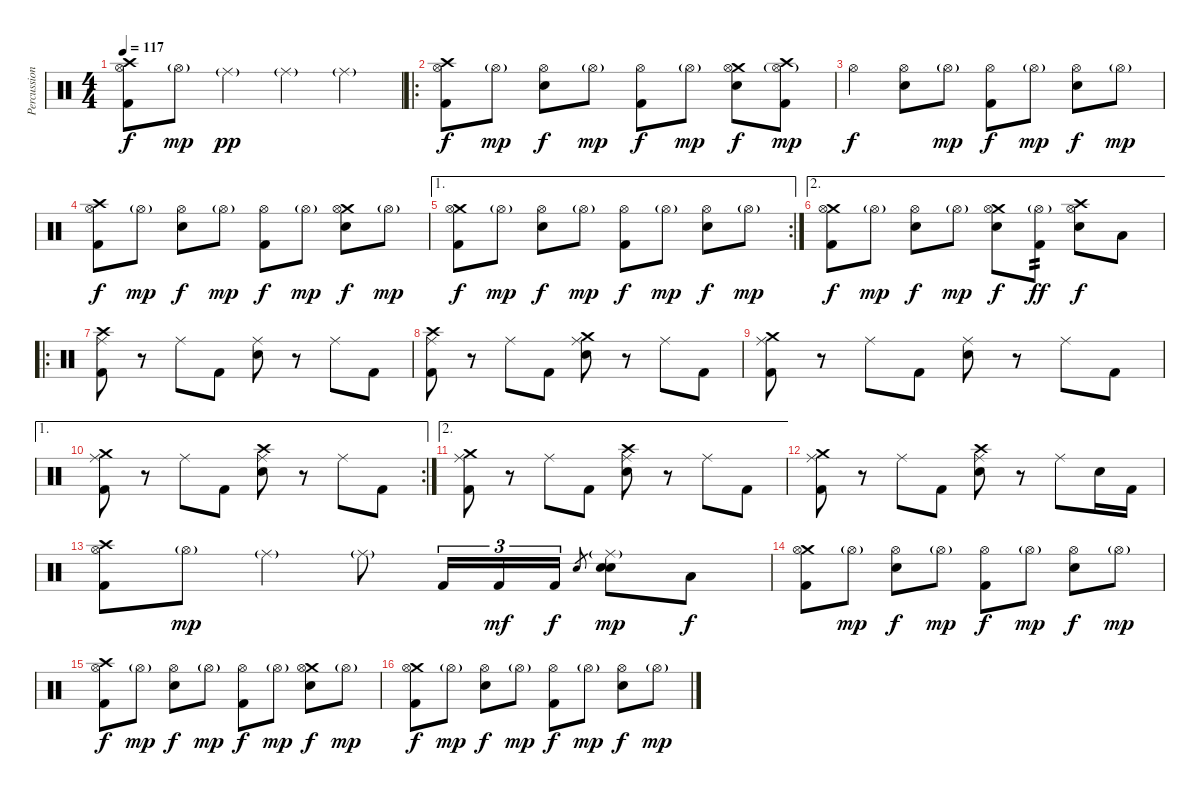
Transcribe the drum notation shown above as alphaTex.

\track ("Percussion" "Percussion") {instrument percussion}
\staff {score}
\articulation defaults
\ts (4 4)
\tempo 117
\clef neutral
\ks c
("Crash high (hit)" "Hi-Hat (open)" "Kick (hit) 2").8{dy f} "Hi-Hat (open)"{g}.8{dy mp} "Ride (middle)"{g}.4{dy pp} "Ride (middle)"{g}.4 "Ride (middle)"{g}.4 |
\ro
("Crash high (hit)" "Hi-Hat (open)" "Kick (hit) 2").8{dy f} "Hi-Hat (open)"{g}.8{dy mp} ("Hi-Hat (open)" "Electric Snare (hit)").8{dy f} "Hi-Hat (open)"{g}.8{dy mp} ("Hi-Hat (open)" "Kick (hit) 2").8{dy f} "Hi-Hat (open)"{g}.8{dy mp} ("Crash medium (hit)" "Hi-Hat (open)" "Electric Snare (hit)").8{dy f} ("Crash high (hit)" "Hi-Hat (open)"{g} "Kick (hit) 2").8{dy mp} |
"Hi-Hat (open)".4{dy f} ("Hi-Hat (open)" "Electric Snare (hit)").8 "Hi-Hat (open)"{g}.8{dy mp} ("Hi-Hat (open)" "Kick (hit) 2").8{dy f} "Hi-Hat (open)"{g}.8{dy mp} ("Hi-Hat (open)" "Electric Snare (hit)").8{dy f} "Hi-Hat (open)"{g}.8{dy mp} |
("Crash high (hit)" "Hi-Hat (open)" "Kick (hit) 2").8{dy f} "Hi-Hat (open)"{g}.8{dy mp} ("Hi-Hat (open)" "Electric Snare (hit)").8{dy f} "Hi-Hat (open)"{g}.8{dy mp} ("Hi-Hat (open)" "Kick (hit) 2").8{dy f} "Hi-Hat (open)"{g}.8{dy mp} ("Crash medium (hit)" "Hi-Hat (open)" "Electric Snare (hit)").8{dy f} "Hi-Hat (open)"{g}.8{dy mp} |
\ae 1
\rc 2
("Crash medium (hit)" "Hi-Hat (open)" "Kick (hit) 2").8{dy f} "Hi-Hat (open)"{g}.8{dy mp} ("Hi-Hat (open)" "Electric Snare (hit)").8{dy f} "Hi-Hat (open)"{g}.8{dy mp} ("Hi-Hat (open)" "Kick (hit) 2").8{dy f} "Hi-Hat (open)"{g}.8{dy mp} ("Hi-Hat (open)" "Electric Snare (hit)").8{dy f} "Hi-Hat (open)"{g}.8{dy mp} |
\ae 2
("Crash medium (hit)" "Hi-Hat (open)" "Kick (hit) 2").8{dy f} "Hi-Hat (open)"{g}.8{dy mp} ("Hi-Hat (open)" "Electric Snare (hit)").8{dy f} "Hi-Hat (open)"{g}.8{dy mp} ("Crash medium (hit)" "Hi-Hat (open)" "Electric Snare (hit)").8{dy f} ("Hi-Hat (open)"{g} "Kick (hit) 2").8{tp 2 dy ff} ("Crash high (hit)" "Hi-Hat (open)" "Electric Snare (hit)").8{dy f} "Low Tom (hit)".8 |
\ro
("Ride (middle)" "Crash high (hit)" "Kick (hit) 2").8 r.8 "Ride (middle)".8 "Kick (hit) 2".8 ("Ride (middle)" "Electric Snare (hit)").8 r.8 "Ride (middle)".8 "Kick (hit) 2".8 |
("Ride (middle)" "Crash high (hit)" "Kick (hit) 2").8 r.8 "Ride (middle)".8 "Kick (hit) 2".8 ("Ride (middle)" "Crash medium (hit)" "Electric Snare (hit)").8 r.8 "Ride (middle)".8 "Kick (hit) 2".8 |
("Ride (middle)" "Crash medium (hit)" "Kick (hit) 2").8 r.8 "Ride (middle)".8 "Kick (hit) 2".8 ("Ride (middle)" "Electric Snare (hit)").8 r.8 "Ride (middle)".8 "Kick (hit) 2".8 |
\ae 1
\rc 2
("Ride (middle)" "Crash medium (hit)" "Kick (hit) 2").8 r.8 "Ride (middle)".8 "Kick (hit) 2".8 ("Ride (middle)" "Crash high (hit)" "Electric Snare (hit)").8 r.8 "Ride (middle)".8 "Kick (hit) 2".8 |
\ae 2
("Ride (middle)" "Crash medium (hit)" "Kick (hit) 2").8 r.8 "Ride (middle)".8 "Kick (hit) 2".8 ("Ride (middle)" "Crash high (hit)" "Electric Snare (hit)").8 r.8 "Ride (middle)".8 "Kick (hit) 2".8 |
("Ride (middle)" "Crash medium (hit)" "Kick (hit) 2").8 r.8 "Ride (middle)".8 "Kick (hit) 2".8 ("Ride (middle)" "Crash high (hit)" "Electric Snare (hit)").8 r.8 "Ride (middle)".8 "Electric Snare (hit)".16 "Kick (hit) 2".16 |
("Crash high (hit)" "Hi-Hat (open)" "Kick (hit) 2").8 "Hi-Hat (open)"{g}.8{dy mp} "Ride (middle)"{g}.4 "Ride (middle)"{g}.8 "Kick (hit) 2".16{tu (3 2)} "Kick (hit) 2".16{tu (3 2) dy mf} "Kick (hit) 2".16{tu (3 2) dy f} "Electric Snare (hit)".8{gr} ("Ride (middle)"{g} "Snare (hit) 2" "Electric Snare (hit)").8{dy mp} "Low Tom (hit)".8{dy f} |
("Crash medium (hit)" "Hi-Hat (open)" "Kick (hit) 2").8 "Hi-Hat (open)"{g}.8{dy mp} ("Hi-Hat (open)" "Electric Snare (hit)").8{dy f} "Hi-Hat (open)"{g}.8{dy mp} ("Hi-Hat (open)" "Kick (hit) 2").8{dy f} "Hi-Hat (open)"{g}.8{dy mp} ("Hi-Hat (open)" "Electric Snare (hit)").8{dy f} "Hi-Hat (open)"{g}.8{dy mp} |
("Crash high (hit)" "Hi-Hat (open)" "Kick (hit) 2").8{dy f} "Hi-Hat (open)"{g}.8{dy mp} ("Hi-Hat (open)" "Electric Snare (hit)").8{dy f} "Hi-Hat (open)"{g}.8{dy mp} ("Hi-Hat (open)" "Kick (hit) 2").8{dy f} "Hi-Hat (open)"{g}.8{dy mp} ("Crash medium (hit)" "Hi-Hat (open)" "Electric Snare (hit)").8{dy f} "Hi-Hat (open)"{g}.8{dy mp} |
("Crash medium (hit)" "Hi-Hat (open)" "Kick (hit) 2").8{dy f} "Hi-Hat (open)"{g}.8{dy mp} ("Hi-Hat (open)" "Electric Snare (hit)").8{dy f} "Hi-Hat (open)"{g}.8{dy mp} ("Hi-Hat (open)" "Kick (hit) 2").8{dy f} "Hi-Hat (open)"{g}.8{dy mp} ("Hi-Hat (open)" "Electric Snare (hit)").8{dy f} "Hi-Hat (open)"{g}.8{dy mp}
